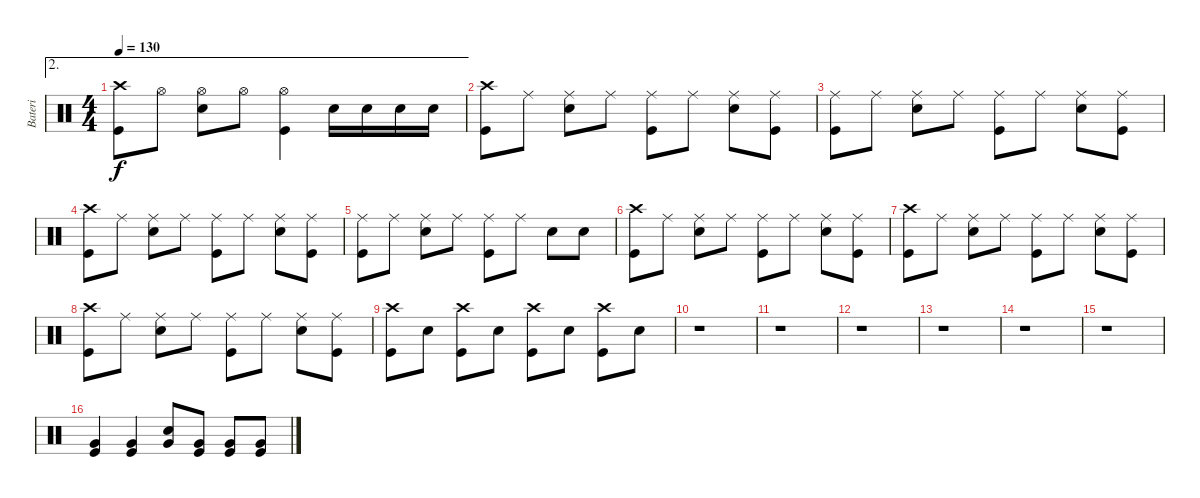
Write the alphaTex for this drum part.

\track ("Bateri" "Bateri") {instrument percussion}
\staff {score}
\articulation defaults
\ae 2
\ts (4 4)
\tempo 130
\clef neutral
\ks c
("Crash high (hit)" "Kick (hit)").8{dy f} "Hi-Hat (open)".8 ("Hi-Hat (open)" "Electric Snare (hit)").8 "Hi-Hat (open)".8 ("Hi-Hat (open)" "Kick (hit)").4 "Electric Snare (hit)".16 "Electric Snare (hit)".16 "Electric Snare (hit)".16 "Electric Snare (hit)".16 |
("Crash high (hit)" "Kick (hit)").8 "Ride (middle)".8 ("Ride (middle)" "Electric Snare (hit)").8 "Ride (middle)".8 ("Ride (middle)" "Kick (hit)").8 "Ride (middle)".8 ("Ride (middle)" "Electric Snare (hit)").8 ("Ride (middle)" "Kick (hit)").8 |
("Ride (middle)" "Kick (hit)").8 "Ride (middle)".8 ("Ride (middle)" "Electric Snare (hit)").8 "Ride (middle)".8 ("Ride (middle)" "Kick (hit)").8 "Ride (middle)".8 ("Ride (middle)" "Electric Snare (hit)").8 ("Ride (middle)" "Kick (hit)").8 |
("Crash high (hit)" "Kick (hit)").8 "Ride (middle)".8 ("Ride (middle)" "Electric Snare (hit)").8 "Ride (middle)".8 ("Ride (middle)" "Kick (hit)").8 "Ride (middle)".8 ("Ride (middle)" "Electric Snare (hit)").8 ("Ride (middle)" "Kick (hit)").8 |
("Ride (middle)" "Kick (hit)").8 "Ride (middle)".8 ("Ride (middle)" "Electric Snare (hit)").8 "Ride (middle)".8 ("Ride (middle)" "Kick (hit)").8 "Ride (middle)".8 "Electric Snare (hit)".8 "Electric Snare (hit)".8 |
("Crash high (hit)" "Kick (hit)").8 "Ride (middle)".8 ("Ride (middle)" "Electric Snare (hit)").8 "Ride (middle)".8 ("Ride (middle)" "Kick (hit)").8 "Ride (middle)".8 ("Ride (middle)" "Electric Snare (hit)").8 ("Ride (middle)" "Kick (hit)").8 |
("Crash high (hit)" "Kick (hit)").8 "Ride (middle)".8 ("Ride (middle)" "Electric Snare (hit)").8 "Ride (middle)".8 ("Ride (middle)" "Kick (hit)").8 "Ride (middle)".8 ("Ride (middle)" "Electric Snare (hit)").8 ("Ride (middle)" "Kick (hit)").8 |
("Crash high (hit)" "Kick (hit)").8 "Ride (middle)".8 ("Ride (middle)" "Electric Snare (hit)").8 "Ride (middle)".8 ("Ride (middle)" "Kick (hit)").8 "Ride (middle)".8 ("Ride (middle)" "Electric Snare (hit)").8 ("Ride (middle)" "Kick (hit)").8 |
("Crash high (hit)" "Kick (hit)").8 "Electric Snare (hit)".8 ("Crash high (hit)" "Kick (hit)").8 "Electric Snare (hit)".8 ("Crash high (hit)" "Kick (hit)").8 "Electric Snare (hit)".8 ("Crash high (hit)" "Kick (hit)").8 "Electric Snare (hit)".8 |
r.1 |
r.1 |
r.1 |
r.1 |
r.1 |
r.1 |
("Kick (hit)" "Very Low Tom (hit)").4 ("Kick (hit)" "Very Low Tom (hit)").4 ("Electric Snare (hit)" "Very Low Tom (hit)").8 ("Kick (hit)" "Very Low Tom (hit)").8 ("Kick (hit)" "Very Low Tom (hit)").8 ("Kick (hit)" "Very Low Tom (hit)").8
